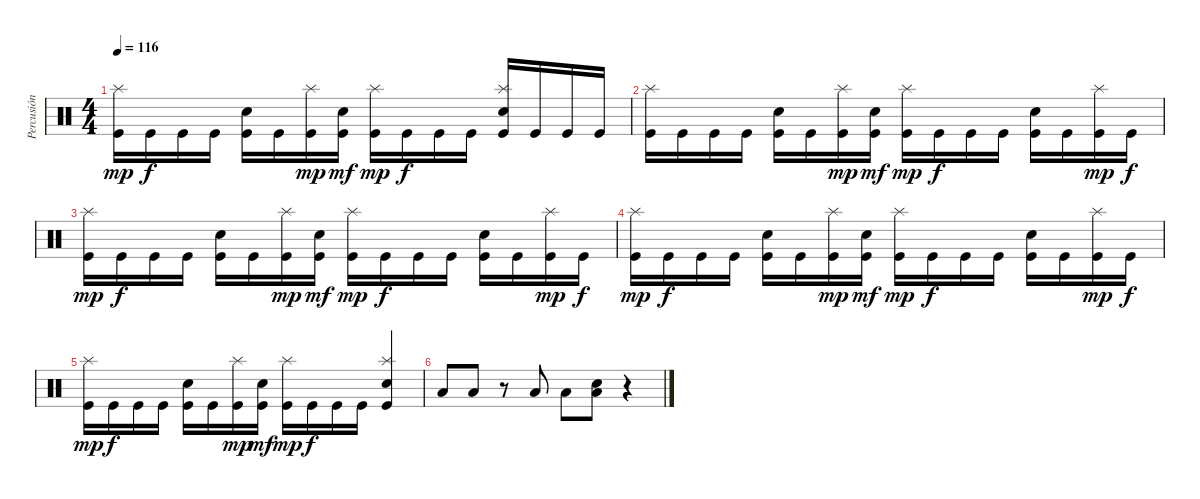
\track ("Percusión" "Percusión") {instrument percussion}
\staff {score}
\articulation defaults
\ts (4 4)
\tempo 116
\clef neutral
\ks c
("Kick (hit)" "Splash (hit)").16{dy mp} "Kick (hit)".16{dy f} "Kick (hit)".16 "Kick (hit)".16 ("Kick (hit)" "Snare (hit) 2").16 "Kick (hit)".16 ("Kick (hit)" "Splash (hit)").16{dy mp} ("Kick (hit)" "Snare (hit) 2").16{dy mf} ("Kick (hit)" "Splash (hit)").16{dy mp} "Kick (hit)".16{dy f} "Kick (hit)".16 "Kick (hit)".16 ("Kick (hit)" "Snare (hit) 2" "Splash (hit)").16 "Kick (hit)".16 "Kick (hit)".16 "Kick (hit)".16 |
("Kick (hit)" "Splash (hit)").16 "Kick (hit)".16 "Kick (hit)".16 "Kick (hit)".16 ("Kick (hit)" "Snare (hit) 2").16 "Kick (hit)".16 ("Kick (hit)" "Splash (hit)").16{dy mp} ("Kick (hit)" "Snare (hit) 2").16{dy mf} ("Kick (hit)" "Splash (hit)").16{dy mp} "Kick (hit)".16{dy f} "Kick (hit)".16 "Kick (hit)".16 ("Kick (hit)" "Snare (hit) 2").16 "Kick (hit)".16 ("Kick (hit)" "Splash (hit)").16{dy mp} "Kick (hit)".16{dy f} |
("Kick (hit)" "Splash (hit)").16{dy mp} "Kick (hit)".16{dy f} "Kick (hit)".16 "Kick (hit)".16 ("Kick (hit)" "Snare (hit) 2").16 "Kick (hit)".16 ("Kick (hit)" "Splash (hit)").16{dy mp} ("Kick (hit)" "Snare (hit) 2").16{dy mf} ("Kick (hit)" "Splash (hit)").16{dy mp} "Kick (hit)".16{dy f} "Kick (hit)".16 "Kick (hit)".16 ("Kick (hit)" "Snare (hit) 2").16 "Kick (hit)".16 ("Kick (hit)" "Splash (hit)").16{dy mp} "Kick (hit)".16{dy f} |
("Kick (hit)" "Splash (hit)").16{dy mp} "Kick (hit)".16{dy f} "Kick (hit)".16 "Kick (hit)".16 ("Kick (hit)" "Snare (hit) 2").16 "Kick (hit)".16 ("Kick (hit)" "Splash (hit)").16{dy mp} ("Kick (hit)" "Snare (hit) 2").16{dy mf} ("Kick (hit)" "Splash (hit)").16{dy mp} "Kick (hit)".16{dy f} "Kick (hit)".16 "Kick (hit)".16 ("Kick (hit)" "Snare (hit) 2").16 "Kick (hit)".16 ("Kick (hit)" "Splash (hit)").16{dy mp} "Kick (hit)".16{dy f} |
("Kick (hit)" "Splash (hit)").16{dy mp} "Kick (hit)".16{dy f} "Kick (hit)".16 "Kick (hit)".16 ("Kick (hit)" "Snare (hit) 2").16 "Kick (hit)".16 ("Kick (hit)" "Splash (hit)").16{dy mp} ("Kick (hit)" "Snare (hit) 2").16{dy mf} ("Kick (hit)" "Splash (hit)").16{dy mp} "Kick (hit)".16{dy f} "Kick (hit)".16 "Kick (hit)".16 ("Kick (hit)" "Snare (hit) 2" "Splash (hit)").4 |
"Low Tom (hit)".8 "Low Tom (hit)".8 r.8 "Low Tom (hit)".8 "Low Tom (hit)".8 ("Low Tom (hit)" "Snare (hit) 2").8 r.4
